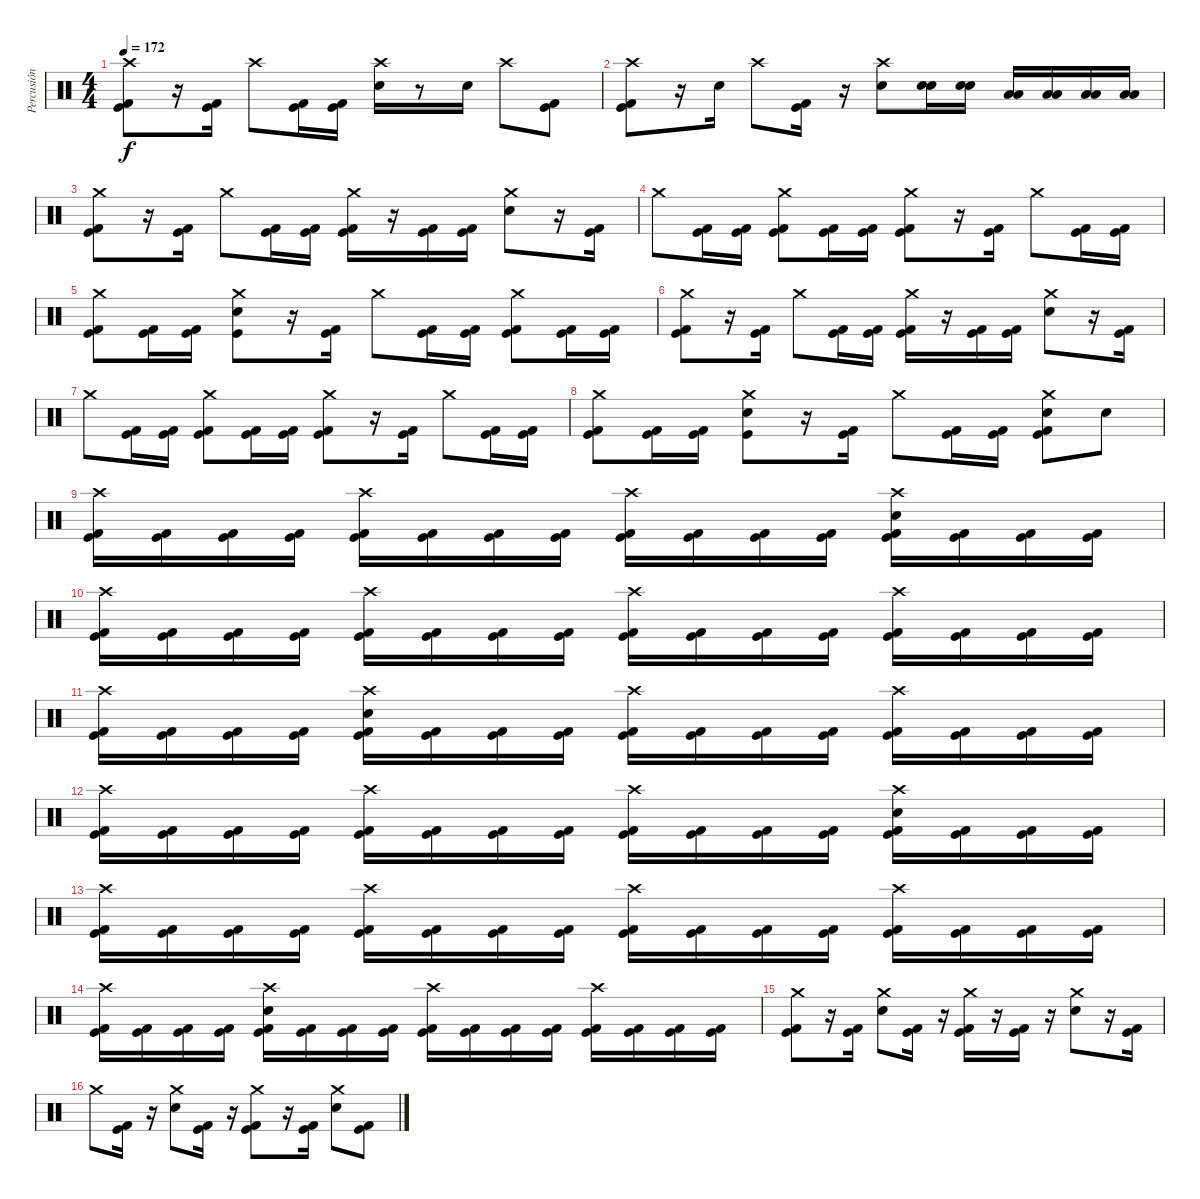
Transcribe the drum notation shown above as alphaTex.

\track ("Percusión" "Percusión") {instrument percussion}
\staff {score}
\articulation defaults
\ts (4 4)
\tempo 172
\clef neutral
\ks c
("Crash high (hit)" "Kick (hit)" "Kick (hit) 2").8{dy f} r.16 ("Kick (hit)" "Kick (hit) 2").16 "Crash high (hit)".8 ("Kick (hit)" "Kick (hit) 2").16 ("Kick (hit)" "Kick (hit) 2").16 ("Crash high (hit)" "Electric Snare (hit)").16 r.8 "Electric Snare (hit)".16 "Crash high (hit)".8 ("Kick (hit)" "Kick (hit) 2").8 |
("Crash high (hit)" "Kick (hit)" "Kick (hit) 2").8 r.16 "Electric Snare (hit)".16 "Crash high (hit)".8 ("Kick (hit)" "Kick (hit) 2").16 r.16 ("Crash high (hit)" "Electric Snare (hit)").8 ("Electric Snare (hit)" "Electric Snare (hit)").16 ("Electric Snare (hit)" "Electric Snare (hit)").16 ("Low Tom (hit)" "Low Tom (hit)").16 ("Low Tom (hit)" "Low Tom (hit)").16 ("Low Floor Tom (hit)" "Low Floor Tom (hit)").16 ("Low Floor Tom (hit)" "Low Floor Tom (hit)").16 |
("Crash medium (hit)" "Kick (hit)" "Kick (hit) 2").8 r.16 ("Kick (hit)" "Kick (hit) 2").16 "Crash medium (hit)".8 ("Kick (hit)" "Kick (hit) 2").16 ("Kick (hit)" "Kick (hit) 2").16 ("Crash medium (hit)" "Kick (hit)" "Kick (hit) 2").16 r.16 ("Kick (hit) 2" "Kick (hit)").16 ("Kick (hit)" "Kick (hit) 2").16 ("Crash medium (hit)" "Electric Snare (hit)").8 r.16 ("Kick (hit) 2" "Kick (hit)").16 |
"Crash medium (hit)".8 ("Kick (hit)" "Kick (hit) 2").16 ("Kick (hit) 2" "Kick (hit)").16 ("Crash medium (hit)" "Kick (hit)" "Kick (hit) 2").8 ("Kick (hit) 2" "Kick (hit)").16 ("Kick (hit) 2" "Kick (hit)").16 ("Crash medium (hit)" "Kick (hit) 2" "Kick (hit)").8 r.16 ("Kick (hit)" "Kick (hit) 2").16 "Crash medium (hit)".8 ("Kick (hit) 2" "Kick (hit)").16 ("Kick (hit) 2" "Kick (hit)").16 |
("Crash medium (hit)" "Kick (hit) 2" "Kick (hit)").8 ("Kick (hit)" "Kick (hit) 2").16 ("Kick (hit) 2" "Kick (hit)").16 ("Crash medium (hit)" "Electric Snare (hit)" "Kick (hit)").8 r.16 ("Kick (hit)" "Kick (hit) 2").16 "Crash medium (hit)".8 ("Kick (hit) 2" "Kick (hit)").16 ("Kick (hit)" "Kick (hit) 2").16 ("Crash medium (hit)" "Kick (hit)" "Kick (hit) 2").8 ("Kick (hit)" "Kick (hit) 2").16 ("Kick (hit) 2" "Kick (hit)").16 |
("Crash medium (hit)" "Kick (hit)" "Kick (hit) 2").8 r.16 ("Kick (hit)" "Kick (hit) 2").16 "Crash medium (hit)".8 ("Kick (hit)" "Kick (hit) 2").16 ("Kick (hit)" "Kick (hit) 2").16 ("Crash medium (hit)" "Kick (hit)" "Kick (hit) 2").16 r.16 ("Kick (hit) 2" "Kick (hit)").16 ("Kick (hit)" "Kick (hit) 2").16 ("Crash medium (hit)" "Electric Snare (hit)").8 r.16 ("Kick (hit) 2" "Kick (hit)").16 |
"Crash medium (hit)".8 ("Kick (hit)" "Kick (hit) 2").16 ("Kick (hit) 2" "Kick (hit)").16 ("Crash medium (hit)" "Kick (hit)" "Kick (hit) 2").8 ("Kick (hit) 2" "Kick (hit)").16 ("Kick (hit) 2" "Kick (hit)").16 ("Crash medium (hit)" "Kick (hit) 2" "Kick (hit)").8 r.16 ("Kick (hit)" "Kick (hit) 2").16 "Crash medium (hit)".8 ("Kick (hit) 2" "Kick (hit)").16 ("Kick (hit) 2" "Kick (hit)").16 |
("Crash medium (hit)" "Kick (hit) 2" "Kick (hit)").8 ("Kick (hit)" "Kick (hit) 2").16 ("Kick (hit) 2" "Kick (hit)").16 ("Crash medium (hit)" "Electric Snare (hit)" "Kick (hit)").8 r.16 ("Kick (hit)" "Kick (hit) 2").16 "Crash medium (hit)".8 ("Kick (hit) 2" "Kick (hit)").16 ("Kick (hit)" "Kick (hit) 2").16 ("Crash medium (hit)" "Electric Snare (hit)" "Kick (hit)" "Kick (hit) 2").8 "Electric Snare (hit)".8 |
("Crash high (hit)" "Kick (hit)" "Kick (hit) 2").16 ("Kick (hit)" "Kick (hit) 2").16 ("Kick (hit)" "Kick (hit) 2").16 ("Kick (hit)" "Kick (hit) 2").16 ("Crash high (hit)" "Kick (hit)" "Kick (hit) 2").16 ("Kick (hit)" "Kick (hit) 2").16 ("Kick (hit)" "Kick (hit) 2").16 ("Kick (hit)" "Kick (hit) 2").16 ("Crash high (hit)" "Kick (hit)" "Kick (hit) 2").16 ("Kick (hit)" "Kick (hit) 2").16 ("Kick (hit)" "Kick (hit) 2").16 ("Kick (hit)" "Kick (hit) 2").16 ("Crash high (hit)" "Electric Snare (hit)" "Kick (hit)" "Kick (hit) 2").16 ("Kick (hit)" "Kick (hit) 2").16 ("Kick (hit)" "Kick (hit) 2").16 ("Kick (hit)" "Kick (hit) 2").16 |
("Crash high (hit)" "Kick (hit)" "Kick (hit) 2").16 ("Kick (hit)" "Kick (hit) 2").16 ("Kick (hit)" "Kick (hit) 2").16 ("Kick (hit)" "Kick (hit) 2").16 ("Crash high (hit)" "Kick (hit)" "Kick (hit) 2").16 ("Kick (hit)" "Kick (hit) 2").16 ("Kick (hit)" "Kick (hit) 2").16 ("Kick (hit)" "Kick (hit) 2").16 ("Crash high (hit)" "Kick (hit)" "Kick (hit) 2").16 ("Kick (hit)" "Kick (hit) 2").16 ("Kick (hit)" "Kick (hit) 2").16 ("Kick (hit)" "Kick (hit) 2").16 ("Crash high (hit)" "Kick (hit)" "Kick (hit) 2").16 ("Kick (hit)" "Kick (hit) 2").16 ("Kick (hit)" "Kick (hit) 2").16 ("Kick (hit)" "Kick (hit) 2").16 |
("Crash high (hit)" "Kick (hit)" "Kick (hit) 2").16 ("Kick (hit)" "Kick (hit) 2").16 ("Kick (hit)" "Kick (hit) 2").16 ("Kick (hit)" "Kick (hit) 2").16 ("Crash high (hit)" "Electric Snare (hit)" "Kick (hit)" "Kick (hit) 2").16 ("Kick (hit)" "Kick (hit) 2").16 ("Kick (hit)" "Kick (hit) 2").16 ("Kick (hit)" "Kick (hit) 2").16 ("Crash high (hit)" "Kick (hit)" "Kick (hit) 2").16 ("Kick (hit)" "Kick (hit) 2").16 ("Kick (hit)" "Kick (hit) 2").16 ("Kick (hit)" "Kick (hit) 2").16 ("Crash high (hit)" "Kick (hit)" "Kick (hit) 2").16 ("Kick (hit)" "Kick (hit) 2").16 ("Kick (hit)" "Kick (hit) 2").16 ("Kick (hit)" "Kick (hit) 2").16 |
("Crash high (hit)" "Kick (hit)" "Kick (hit) 2").16 ("Kick (hit)" "Kick (hit) 2").16 ("Kick (hit)" "Kick (hit) 2").16 ("Kick (hit)" "Kick (hit) 2").16 ("Crash high (hit)" "Kick (hit)" "Kick (hit) 2").16 ("Kick (hit)" "Kick (hit) 2").16 ("Kick (hit)" "Kick (hit) 2").16 ("Kick (hit)" "Kick (hit) 2").16 ("Crash high (hit)" "Kick (hit)" "Kick (hit) 2").16 ("Kick (hit)" "Kick (hit) 2").16 ("Kick (hit)" "Kick (hit) 2").16 ("Kick (hit)" "Kick (hit) 2").16 ("Crash high (hit)" "Electric Snare (hit)" "Kick (hit)" "Kick (hit) 2").16 ("Kick (hit)" "Kick (hit) 2").16 ("Kick (hit)" "Kick (hit) 2").16 ("Kick (hit)" "Kick (hit) 2").16 |
("Crash high (hit)" "Kick (hit)" "Kick (hit) 2").16 ("Kick (hit)" "Kick (hit) 2").16 ("Kick (hit)" "Kick (hit) 2").16 ("Kick (hit)" "Kick (hit) 2").16 ("Crash high (hit)" "Kick (hit)" "Kick (hit) 2").16 ("Kick (hit)" "Kick (hit) 2").16 ("Kick (hit)" "Kick (hit) 2").16 ("Kick (hit)" "Kick (hit) 2").16 ("Crash high (hit)" "Kick (hit)" "Kick (hit) 2").16 ("Kick (hit)" "Kick (hit) 2").16 ("Kick (hit)" "Kick (hit) 2").16 ("Kick (hit)" "Kick (hit) 2").16 ("Crash high (hit)" "Kick (hit)" "Kick (hit) 2").16 ("Kick (hit)" "Kick (hit) 2").16 ("Kick (hit)" "Kick (hit) 2").16 ("Kick (hit)" "Kick (hit) 2").16 |
("Crash high (hit)" "Kick (hit)" "Kick (hit) 2").16 ("Kick (hit)" "Kick (hit) 2").16 ("Kick (hit)" "Kick (hit) 2").16 ("Kick (hit)" "Kick (hit) 2").16 ("Crash high (hit)" "Electric Snare (hit)" "Kick (hit)" "Kick (hit) 2").16 ("Kick (hit)" "Kick (hit) 2").16 ("Kick (hit)" "Kick (hit) 2").16 ("Kick (hit)" "Kick (hit) 2").16 ("Crash high (hit)" "Kick (hit)" "Kick (hit) 2").16 ("Kick (hit)" "Kick (hit) 2").16 ("Kick (hit)" "Kick (hit) 2").16 ("Kick (hit)" "Kick (hit) 2").16 ("Crash high (hit)" "Kick (hit)" "Kick (hit) 2").16 ("Kick (hit)" "Kick (hit) 2").16 ("Kick (hit)" "Kick (hit) 2").16 ("Kick (hit)" "Kick (hit) 2").16 |
("Crash medium (hit)" "Kick (hit)" "Kick (hit) 2").8 r.16 ("Kick (hit)" "Kick (hit) 2").16 ("Crash medium (hit)" "Electric Snare (hit)").8 ("Kick (hit)" "Kick (hit) 2").16 r.16 ("Crash medium (hit)" "Kick (hit)" "Kick (hit) 2").16 r.16 ("Kick (hit) 2" "Kick (hit)").16 r.16 ("Crash medium (hit)" "Electric Snare (hit)").8 r.16 ("Kick (hit) 2" "Kick (hit)").16 |
"Crash medium (hit)".8 ("Kick (hit)" "Kick (hit) 2").16 r.16 ("Crash medium (hit)" "Electric Snare (hit)").8 ("Kick (hit) 2" "Kick (hit)").16 r.16 ("Crash medium (hit)" "Kick (hit) 2" "Kick (hit)").8 r.16 ("Kick (hit)" "Kick (hit) 2").16 ("Crash medium (hit)" "Electric Snare (hit)").8 ("Kick (hit) 2" "Kick (hit)").8
